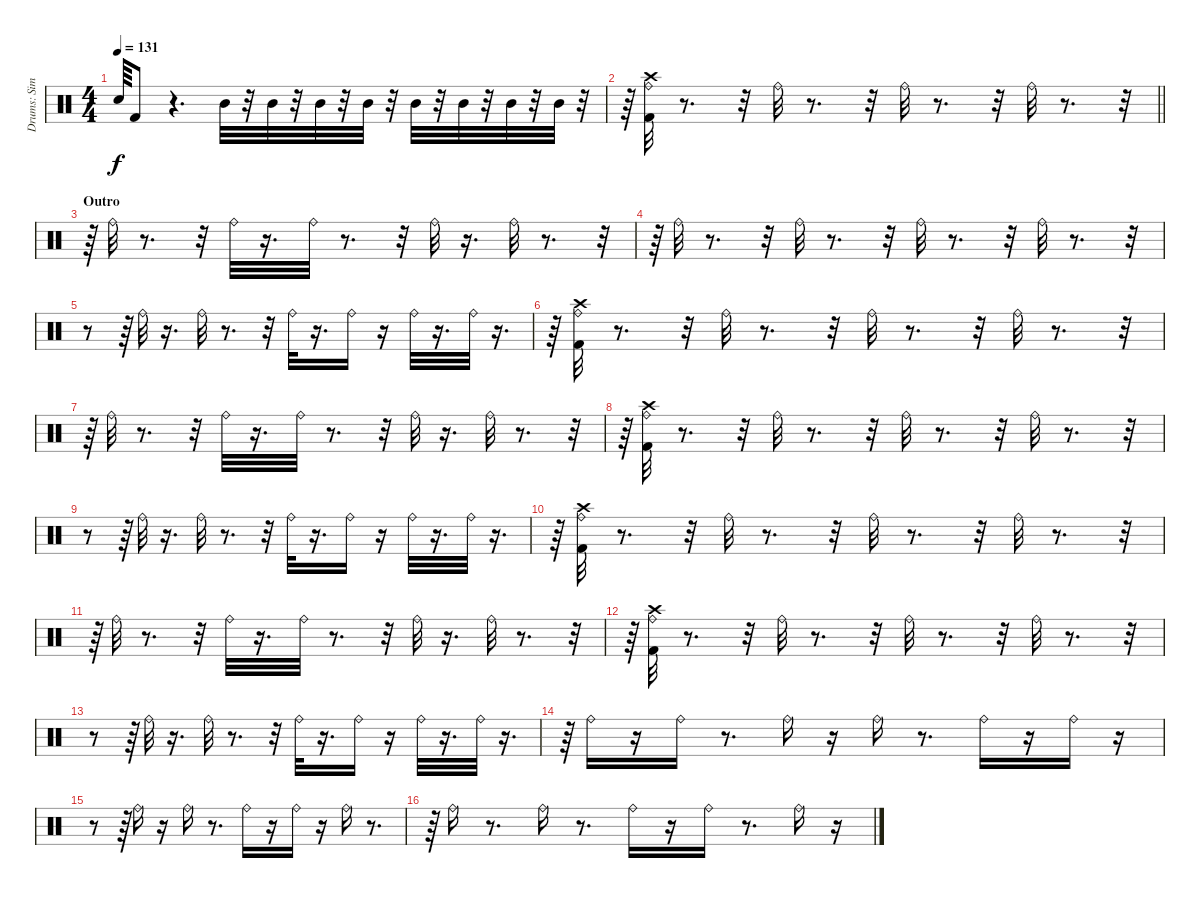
\track ("Drums: Simon Kirke" "Drums: Sim") {instrument percussion}
\staff {score}
\articulation defaults
\ts (4 4)
\tempo 131
\clef neutral
\ks c "Snare (hit)"{t}.64{dy f} "Kick (hit) 2".8
r.4{d} "Mid Tom (hit)".32 r.32 "Mid Tom (hit)".32 r.32 "Mid Tom (hit)".32 r.32 "Mid Tom (hit)".32 r.32 "Mid Tom (hit)".32 r.32 "Mid Tom (hit)".32 r.32 "Mid Tom (hit)".32 r.32 "Mid Tom (hit)".32 r.32 |
\barLineRight lightlight
r.64 ("Ride (bell)" "Kick (hit) 2" "Crash high (hit)").32 r.8{d} r.32 "Ride (bell)".32 r.8{d} r.32 "Ride (bell)".32 r.8{d} r.32 "Ride (bell)".32 r.8{d} r.32 |
\section ("" "Outro")
r.64 "Ride (bell)".32 r.8{d} r.32 "Ride (bell)".32 r.16{d} "Ride (bell)".32 r.8{d} r.32 "Ride (bell)".32 r.16{d} "Ride (bell)".32 r.8{d} r.32 |
r.64 "Ride (bell)".32 r.8{d} r.32 "Ride (bell)".32 r.8{d} r.32 "Ride (bell)".32 r.8{d} r.32 "Ride (bell)".32 r.8{d} r.32 |
r.8 r.64 "Ride (bell)".32 r.16{d} "Ride (bell)".32 r.8{d} r.32 "Ride (bell)".32 r.16{d} "Ride (bell)".16 r.16 "Ride (bell)".32 r.16{d} "Ride (bell)".32 r.16{d} |
r.64 ("Ride (bell)" "Kick (hit) 2" "Crash high (hit)").32 r.8{d} r.32 "Ride (bell)".32 r.8{d} r.32 "Ride (bell)".32 r.8{d} r.32 "Ride (bell)".32 r.8{d} r.32 |
r.64 "Ride (bell)".32 r.8{d} r.32 "Ride (bell)".32 r.16{d} "Ride (bell)".32 r.8{d} r.32 "Ride (bell)".32 r.16{d} "Ride (bell)".32 r.8{d} r.32 |
r.64 ("Ride (bell)" "Crash high (hit)" "Kick (hit) 2").32 r.8{d} r.32 "Ride (bell)".32 r.8{d} r.32 "Ride (bell)".32 r.8{d} r.32 "Ride (bell)".32 r.8{d} r.32 |
r.8 r.64 "Ride (bell)".32 r.16{d} "Ride (bell)".32 r.8{d} r.32 "Ride (bell)".32 r.16{d} "Ride (bell)".16 r.16 "Ride (bell)".32 r.16{d} "Ride (bell)".32 r.16{d} |
r.64 ("Ride (bell)" "Kick (hit) 2" "Crash high (hit)").32 r.8{d} r.32 "Ride (bell)".32 r.8{d} r.32 "Ride (bell)".32 r.8{d} r.32 "Ride (bell)".32 r.8{d} r.32 |
r.64 "Ride (bell)".32 r.8{d} r.32 "Ride (bell)".32 r.16{d} "Ride (bell)".32 r.8{d} r.32 "Ride (bell)".32 r.16{d} "Ride (bell)".32 r.8{d} r.32 |
r.64 ("Ride (bell)" "Crash high (hit)" "Kick (hit) 2").32 r.8{d} r.32 "Ride (bell)".32 r.8{d} r.32 "Ride (bell)".32 r.8{d} r.32 "Ride (bell)".32 r.8{d} r.32 |
r.8 r.64 "Ride (bell)".32 r.16{d} "Ride (bell)".32 r.8{d} r.32 "Ride (bell)".32 r.16{d} "Ride (bell)".16 r.16 "Ride (bell)".32 r.16{d} "Ride (bell)".32 r.16{d} |
r.64 "Ride (bell)".16 r.16 "Ride (bell)".16 r.8{d} "Ride (bell)".16 r.16 "Ride (bell)".16 r.8{d} "Ride (bell)".16 r.16 "Ride (bell)".16 r.16 |
r.8 r.64 "Ride (bell)".16 r.16 "Ride (bell)".16 r.8{d} "Ride (bell)".16 r.16 "Ride (bell)".16 r.16 "Ride (bell)".16 r.8{d} |
r.64 "Ride (bell)".16 r.8{d} "Ride (bell)".16{volume 15} r.8{d} "Ride (bell)".16{volume 14} r.16 "Ride (bell)".16{volume 14} r.8{d} "Ride (bell)".16{volume 13} r.16
